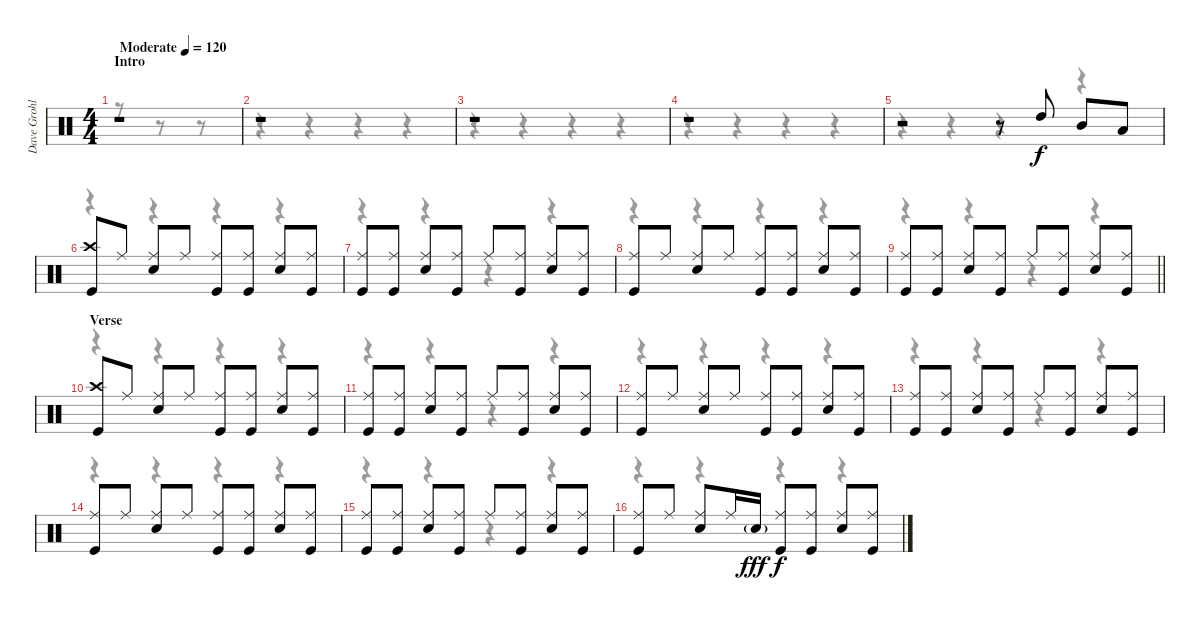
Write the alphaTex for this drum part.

\track ("Dave Grohl" "Dave Grohl") {instrument percussion}
\staff {score}
\articulation defaults
\voice
\ts (4 4)
\section ("" "Intro")
\tempo (120 "Moderate")
\clef neutral
\ks c
r.1{dy f} |
r.1 |
r.1 |
r.1 |
r.2 r.8 "High Tom (hit)".8 "Mid Tom (hit)".8 "Low Tom (hit)".8 |
("Crash high (hit)" "Kick (hit)").8 "Ride (middle)".8 ("Ride (middle)" "Snare (hit) 2").8 "Ride (middle)".8 ("Ride (middle)" "Kick (hit)").8 ("Ride (middle)" "Kick (hit)").8 ("Ride (middle)" "Snare (hit) 2").8 ("Ride (middle)" "Kick (hit)").8 |
("Ride (middle)" "Kick (hit)").8 ("Ride (middle)" "Kick (hit)").8 ("Ride (middle)" "Snare (hit) 2").8 ("Ride (middle)" "Kick (hit)").8 "Ride (middle)".8 ("Ride (middle)" "Kick (hit)").8 ("Ride (middle)" "Snare (hit) 2").8 ("Ride (middle)" "Kick (hit)").8 |
("Ride (middle)" "Kick (hit)").8 "Ride (middle)".8 ("Ride (middle)" "Snare (hit) 2").8 "Ride (middle)".8 ("Ride (middle)" "Kick (hit)").8 ("Ride (middle)" "Kick (hit)").8 ("Ride (middle)" "Snare (hit) 2").8 ("Ride (middle)" "Kick (hit)").8 |
\barLineRight lightlight
("Ride (middle)" "Kick (hit)").8 ("Ride (middle)" "Kick (hit)").8 ("Ride (middle)" "Snare (hit) 2").8 ("Ride (middle)" "Kick (hit)").8 "Ride (middle)".8 ("Ride (middle)" "Kick (hit)").8 ("Ride (middle)" "Snare (hit) 2").8 ("Ride (middle)" "Kick (hit)").8 |
\section ("" "Verse")
("Crash high (hit)" "Kick (hit)").8 "Ride (middle)".8 ("Ride (middle)" "Snare (hit) 2").8 "Ride (middle)".8 ("Ride (middle)" "Kick (hit)").8 ("Ride (middle)" "Kick (hit)").8 ("Ride (middle)" "Snare (hit) 2").8 ("Ride (middle)" "Kick (hit)").8 |
("Ride (middle)" "Kick (hit)").8 ("Ride (middle)" "Kick (hit)").8 ("Ride (middle)" "Snare (hit) 2").8 ("Ride (middle)" "Kick (hit)").8 "Ride (middle)".8 ("Ride (middle)" "Kick (hit)").8 ("Ride (middle)" "Snare (hit) 2").8 ("Ride (middle)" "Kick (hit)").8 |
("Ride (middle)" "Kick (hit)").8 "Ride (middle)".8 ("Ride (middle)" "Snare (hit) 2").8 "Ride (middle)".8 ("Ride (middle)" "Kick (hit)").8 ("Ride (middle)" "Kick (hit)").8 ("Ride (middle)" "Snare (hit) 2").8 ("Ride (middle)" "Kick (hit)").8 |
("Ride (middle)" "Kick (hit)").8 ("Ride (middle)" "Kick (hit)").8 ("Ride (middle)" "Snare (hit) 2").8 ("Ride (middle)" "Kick (hit)").8 "Ride (middle)".8 ("Ride (middle)" "Kick (hit)").8 ("Ride (middle)" "Snare (hit) 2").8 ("Ride (middle)" "Kick (hit)").8 |
("Ride (middle)" "Kick (hit)").8 "Ride (middle)".8 ("Ride (middle)" "Snare (hit) 2").8 "Ride (middle)".8 ("Ride (middle)" "Kick (hit)").8 ("Ride (middle)" "Kick (hit)").8 ("Ride (middle)" "Snare (hit) 2").8 ("Ride (middle)" "Kick (hit)").8 |
("Ride (middle)" "Kick (hit)").8 ("Ride (middle)" "Kick (hit)").8 ("Ride (middle)" "Snare (hit) 2").8 ("Ride (middle)" "Kick (hit)").8 "Ride (middle)".8 ("Ride (middle)" "Kick (hit)").8 ("Ride (middle)" "Snare (hit) 2").8 ("Ride (middle)" "Kick (hit)").8 |
("Ride (middle)" "Kick (hit)").8 "Ride (middle)".8 ("Ride (middle)" "Snare (hit) 2").8 "Ride (middle)".16 "Snare (hit) 2"{g}.16{dy fff} ("Ride (middle)" "Kick (hit)").8{dy f} ("Ride (middle)" "Kick (hit)").8 ("Ride (middle)" "Snare (hit) 2").8 ("Ride (middle)" "Kick (hit)").8
\voice
\clef neutral
\ottava regular
\simile none
\ks c
r.8{dy f} r.8 r.8 |
r.4 r.4 r.4 r.4 |
r.4 r.4 r.4 r.4 |
r.4 r.4 r.4 r.4 |
r.4 r.4 r.4 r.4 |
r.4 r.4 r.4 r.4 |
r.4 r.4 r.4 r.4 |
r.4 r.4 r.4 r.4 |
\barLineRight lightlight
r.4 r.4 r.4 r.4 |
r.4 r.4 r.4 r.4 |
r.4 r.4 r.4 r.4 |
r.4 r.4 r.4 r.4 |
r.4 r.4 r.4 r.4 |
r.4 r.4 r.4 r.4 |
r.4 r.4 r.4 r.4 |
r.4 r.4 r.4 r.4
